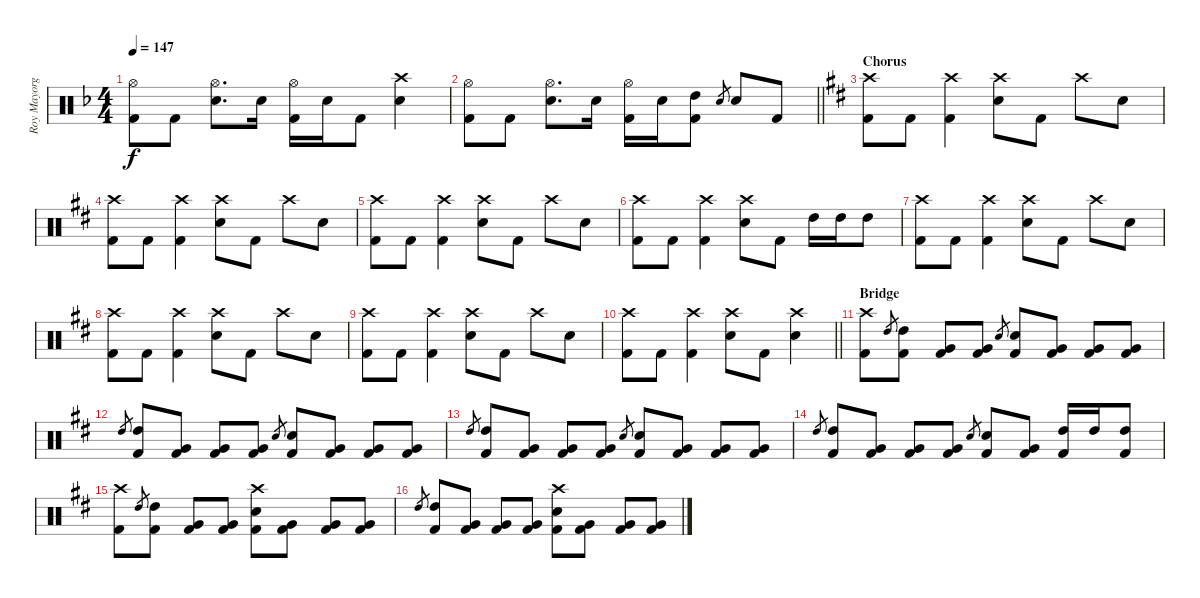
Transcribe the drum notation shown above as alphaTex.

\track ("Roy Mayorga (Drums)" "Roy Mayorg") {instrument percussion}
\staff {score}
\articulation defaults
\ts (4 4)
\tempo 147
\clef neutral
\ks f
("Hi-Hat (open)" "Kick (hit) 2").8{dy f} "Kick (hit) 2".8 ("Hi-Hat (open)" "Snare (hit) 2").8{d} "Snare (hit) 2".16 ("Hi-Hat (open)" "Kick (hit) 2").16 "Snare (hit) 2".16 "Kick (hit) 2".8 ("Crash high (hit)" "Snare (hit) 2").4 |
\barLineRight lightlight
("Hi-Hat (open)" "Kick (hit) 2").8 "Kick (hit) 2".8 ("Hi-Hat (open)" "Snare (hit) 2").8{d} "Snare (hit) 2".16 ("Hi-Hat (open)" "Kick (hit) 2").16 "Snare (hit) 2".16 ("High Tom (hit)" "Kick (hit) 2").8 "Snare (hit) 2".8{gr} "Snare (hit) 2".8 "Kick (hit) 2".8 |
\section ("" "Chorus")
\ks d
("Crash high (hit)" "Kick (hit) 2").8 "Kick (hit) 2".8 ("Crash high (hit)" "Kick (hit) 2").4 ("Crash high (hit)" "Snare (hit) 2").8 "Kick (hit) 2".8 "Crash high (hit)".8 "Snare (hit) 2".8 |
("Crash high (hit)" "Kick (hit) 2").8 "Kick (hit) 2".8 ("Crash high (hit)" "Kick (hit) 2").4 ("Crash high (hit)" "Snare (hit) 2").8 "Kick (hit) 2".8 "Crash high (hit)".8 "Snare (hit) 2".8 |
("Crash high (hit)" "Kick (hit) 2").8 "Kick (hit) 2".8 ("Crash high (hit)" "Kick (hit) 2").4 ("Crash high (hit)" "Snare (hit) 2").8 "Kick (hit) 2".8 "Crash high (hit)".8 "Snare (hit) 2".8 |
("Crash high (hit)" "Kick (hit) 2").8 "Kick (hit) 2".8 ("Crash high (hit)" "Kick (hit) 2").4 ("Crash high (hit)" "Snare (hit) 2").8 "Kick (hit) 2".8 "High Tom (hit)".16 "High Tom (hit)".16 "High Tom (hit)".8 |
("Crash high (hit)" "Kick (hit) 2").8 "Kick (hit) 2".8 ("Crash high (hit)" "Kick (hit) 2").4 ("Crash high (hit)" "Snare (hit) 2").8 "Kick (hit) 2".8 "Crash high (hit)".8 "Snare (hit) 2".8 |
("Crash high (hit)" "Kick (hit) 2").8 "Kick (hit) 2".8 ("Crash high (hit)" "Kick (hit) 2").4 ("Crash high (hit)" "Snare (hit) 2").8 "Kick (hit) 2".8 "Crash high (hit)".8 "Snare (hit) 2".8 |
("Crash high (hit)" "Kick (hit) 2").8 "Kick (hit) 2".8 ("Crash high (hit)" "Kick (hit) 2").4 ("Crash high (hit)" "Snare (hit) 2").8 "Kick (hit) 2".8 "Crash high (hit)".8 "Snare (hit) 2".8 |
\barLineRight lightlight
("Crash high (hit)" "Kick (hit) 2").8 "Kick (hit) 2".8 ("Crash high (hit)" "Kick (hit) 2").4 ("Crash high (hit)" "Snare (hit) 2").8 "Kick (hit) 2".8 ("Crash high (hit)" "Snare (hit) 2").4 |
\section ("" "Bridge")
("Crash high (hit)" "Kick (hit) 2").8 "High Tom (hit)".8{gr} ("High Tom (hit)" "Kick (hit) 2").8 ("Very Low Tom (hit)" "Kick (hit) 2").8 ("Very Low Tom (hit)" "Kick (hit) 2").8 "Snare (hit) 2".8{gr} ("Snare (hit) 2" "Kick (hit) 2").8 ("Very Low Tom (hit)" "Kick (hit) 2").8 ("Very Low Tom (hit)" "Kick (hit) 2").8 ("Very Low Tom (hit)" "Kick (hit) 2").8 |
"High Tom (hit)".8{gr} ("High Tom (hit)" "Kick (hit) 2").8 ("Very Low Tom (hit)" "Kick (hit) 2").8 ("Very Low Tom (hit)" "Kick (hit) 2").8 ("Very Low Tom (hit)" "Kick (hit) 2").8 "Snare (hit) 2".8{gr} ("Snare (hit) 2" "Kick (hit) 2").8 ("Very Low Tom (hit)" "Kick (hit) 2").8 ("Very Low Tom (hit)" "Kick (hit) 2").8 ("Very Low Tom (hit)" "Kick (hit) 2").8 |
"High Tom (hit)".8{gr} ("High Tom (hit)" "Kick (hit) 2").8 ("Very Low Tom (hit)" "Kick (hit) 2").8 ("Very Low Tom (hit)" "Kick (hit) 2").8 ("Very Low Tom (hit)" "Kick (hit) 2").8 "Snare (hit) 2".8{gr} ("Snare (hit) 2" "Kick (hit) 2").8 ("Very Low Tom (hit)" "Kick (hit) 2").8 ("Very Low Tom (hit)" "Kick (hit) 2").8 ("Very Low Tom (hit)" "Kick (hit) 2").8 |
"High Tom (hit)".8{gr} ("High Tom (hit)" "Kick (hit) 2").8 ("Very Low Tom (hit)" "Kick (hit) 2").8 ("Very Low Tom (hit)" "Kick (hit) 2").8 ("Very Low Tom (hit)" "Kick (hit) 2").8 "Snare (hit) 2".8{gr} ("Snare (hit) 2" "Kick (hit) 2").8 ("Very Low Tom (hit)" "Kick (hit) 2").8 ("High Tom (hit)" "Kick (hit) 2").16 "High Tom (hit)".16 ("High Tom (hit)" "Kick (hit) 2").8 |
("Crash high (hit)" "Kick (hit) 2").8 "High Tom (hit)".8{gr} ("High Tom (hit)" "Kick (hit) 2").8 ("Very Low Tom (hit)" "Kick (hit) 2").8 ("Very Low Tom (hit)" "Kick (hit) 2").8 ("Crash high (hit)" "Snare (hit) 2" "Kick (hit) 2").8 ("Very Low Tom (hit)" "Kick (hit) 2").8 ("Very Low Tom (hit)" "Kick (hit) 2").8 ("Very Low Tom (hit)" "Kick (hit) 2").8 |
"High Tom (hit)".8{gr} ("High Tom (hit)" "Kick (hit) 2").8 ("Very Low Tom (hit)" "Kick (hit) 2").8 ("Very Low Tom (hit)" "Kick (hit) 2").8 ("Very Low Tom (hit)" "Kick (hit) 2").8 ("Crash high (hit)" "Snare (hit) 2" "Kick (hit) 2").8 ("Very Low Tom (hit)" "Kick (hit) 2").8 ("Very Low Tom (hit)" "Kick (hit) 2").8 ("Very Low Tom (hit)" "Kick (hit) 2").8
